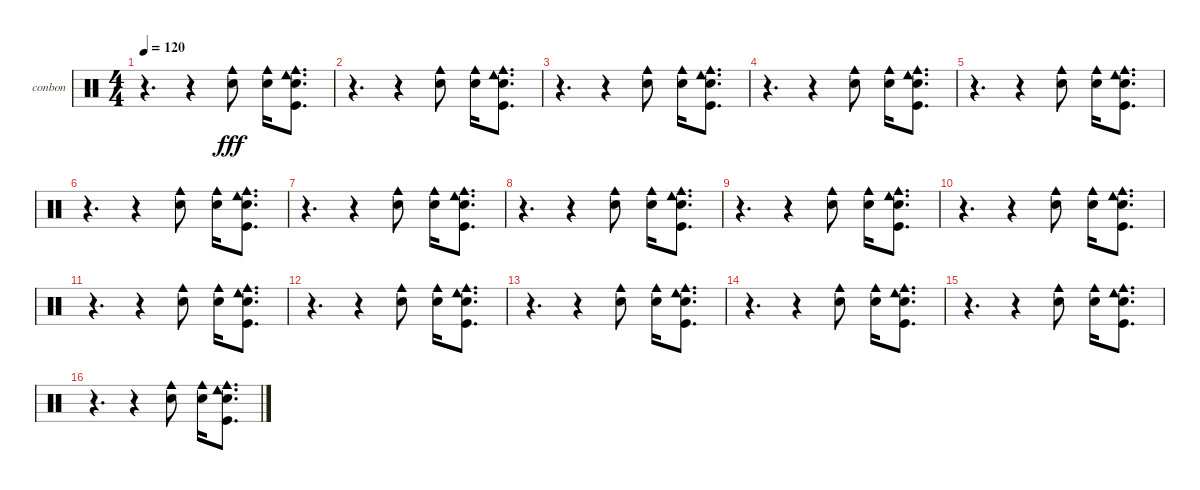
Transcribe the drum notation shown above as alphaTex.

\defaultSystemsLayout 4
\bracketExtendMode groupsimilarinstruments
\firstSystemTrackNameOrientation horizontal
\otherSystemsTrackNameOrientation horizontal
\track ("Bongos N Congas" "conbon") {instrument percussion}
\staff {score}
\articulation defaults
\ts (4 4)
\tempo 120
\clef neutral
\scale
0.333333
\ks c
r.4{d dy fff} r.4 ("Cowbell medium (hit)" "Snare (hit) 2").8 ("Cowbell medium (hit)" "Snare (hit) 2").16 ("Kick (hit)" "Cowbell medium (hit)" "Cowbell low (hit)" "Snare (hit) 2").8{d} |
\scale
0.333333 r.4{d} r.4 ("Cowbell medium (hit)" "Snare (hit) 2").8 ("Cowbell medium (hit)" "Snare (hit) 2").16 ("Kick (hit)" "Cowbell medium (hit)" "Cowbell low (hit)" "Snare (hit) 2").8{d} |
\scale
0.333333 r.4{d} r.4 ("Cowbell medium (hit)" "Snare (hit) 2").8 ("Cowbell medium (hit)" "Snare (hit) 2").16 ("Kick (hit)" "Cowbell medium (hit)" "Cowbell low (hit)" "Snare (hit) 2").8{d} |
\scale
0.333333 r.4{d} r.4 ("Cowbell medium (hit)" "Snare (hit) 2").8 ("Cowbell medium (hit)" "Snare (hit) 2").16 ("Kick (hit)" "Cowbell medium (hit)" "Cowbell low (hit)" "Snare (hit) 2").8{d} |
\scale
0.333333 r.4{d} r.4 ("Cowbell medium (hit)" "Snare (hit) 2").8 ("Cowbell medium (hit)" "Snare (hit) 2").16 ("Kick (hit)" "Cowbell medium (hit)" "Cowbell low (hit)" "Snare (hit) 2").8{d} |
\scale
0.333333 r.4{d} r.4 ("Cowbell medium (hit)" "Snare (hit) 2").8 ("Cowbell medium (hit)" "Snare (hit) 2").16 ("Kick (hit)" "Cowbell medium (hit)" "Cowbell low (hit)" "Snare (hit) 2").8{d} |
\scale
0.333333 r.4{d} r.4 ("Cowbell medium (hit)" "Snare (hit) 2").8 ("Cowbell medium (hit)" "Snare (hit) 2").16 ("Kick (hit)" "Cowbell medium (hit)" "Cowbell low (hit)" "Snare (hit) 2").8{d} |
\scale
0.333333 r.4{d} r.4 ("Cowbell medium (hit)" "Snare (hit) 2").8 ("Cowbell medium (hit)" "Snare (hit) 2").16 ("Kick (hit)" "Cowbell medium (hit)" "Cowbell low (hit)" "Snare (hit) 2").8{d} |
\scale
0.333333 r.4{d} r.4 ("Cowbell medium (hit)" "Snare (hit) 2").8 ("Cowbell medium (hit)" "Snare (hit) 2").16 ("Kick (hit)" "Cowbell medium (hit)" "Cowbell low (hit)" "Snare (hit) 2").8{d} |
\scale
0.333333 r.4{d} r.4 ("Cowbell medium (hit)" "Snare (hit) 2").8 ("Cowbell medium (hit)" "Snare (hit) 2").16 ("Kick (hit)" "Cowbell medium (hit)" "Cowbell low (hit)" "Snare (hit) 2").8{d} |
\scale
0.333333 r.4{d} r.4 ("Cowbell medium (hit)" "Snare (hit) 2").8 ("Cowbell medium (hit)" "Snare (hit) 2").16 ("Kick (hit)" "Cowbell medium (hit)" "Cowbell low (hit)" "Snare (hit) 2").8{d} |
\scale
0.333333 r.4{d} r.4 ("Cowbell medium (hit)" "Snare (hit) 2").8 ("Cowbell medium (hit)" "Snare (hit) 2").16 ("Kick (hit)" "Cowbell medium (hit)" "Cowbell low (hit)" "Snare (hit) 2").8{d} |
\scale
0.333333 r.4{d} r.4 ("Cowbell medium (hit)" "Snare (hit) 2").8 ("Cowbell medium (hit)" "Snare (hit) 2").16 ("Kick (hit)" "Cowbell medium (hit)" "Cowbell low (hit)" "Snare (hit) 2").8{d} |
\scale
0.333333 r.4{d} r.4 ("Cowbell medium (hit)" "Snare (hit) 2").8 ("Cowbell medium (hit)" "Snare (hit) 2").16 ("Kick (hit)" "Cowbell medium (hit)" "Cowbell low (hit)" "Snare (hit) 2").8{d} |
\scale
0.333333 r.4{d} r.4 ("Cowbell medium (hit)" "Snare (hit) 2").8 ("Cowbell medium (hit)" "Snare (hit) 2").16 ("Kick (hit)" "Cowbell medium (hit)" "Cowbell low (hit)" "Snare (hit) 2").8{d} |
\scale
0.333333 r.4{d} r.4 ("Cowbell medium (hit)" "Snare (hit) 2").8 ("Cowbell medium (hit)" "Snare (hit) 2").16 ("Kick (hit)" "Cowbell medium (hit)" "Cowbell low (hit)" "Snare (hit) 2").8{d}
